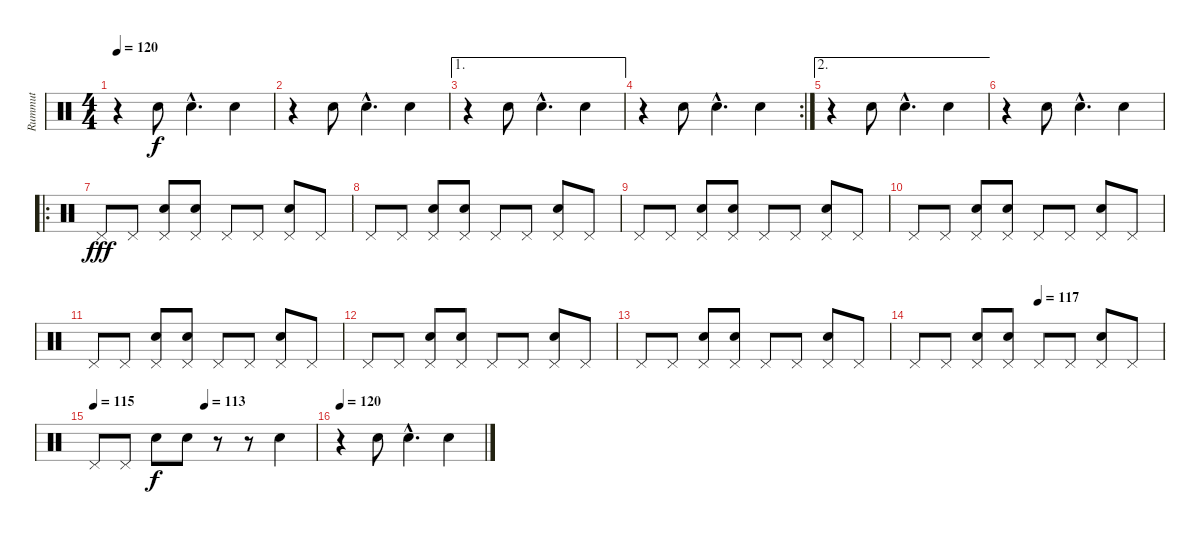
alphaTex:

\track ("Rummut" "Rummut") {instrument percussion}
\staff {score}
\articulation defaults
\ts (4 4)
\tempo 120
\clef neutral
\ks c
r.4{dy f} "Snare (hit) 2".8 "Snare (hit) 2"{hac}.4{d} "Snare (hit) 2".4 |
r.4 "Snare (hit) 2".8 "Snare (hit) 2"{hac}.4{d} "Snare (hit) 2".4 |
\ae 1
r.4 "Snare (hit) 2".8 "Snare (hit) 2"{hac}.4{d} "Snare (hit) 2".4 |
\rc 2
r.4 "Snare (hit) 2".8 "Snare (hit) 2"{hac}.4{d} "Snare (hit) 2".4 |
\ae 2
r.4 "Snare (hit) 2".8 "Snare (hit) 2"{hac}.4{d} "Snare (hit) 2".4 |
r.4 "Snare (hit) 2".8 "Snare (hit) 2"{hac}.4{d} "Snare (hit) 2".4 |
\ro "Pedal Hi-Hat (hit)".8{dy fff} "Pedal Hi-Hat (hit)".8
("Pedal Hi-Hat (hit)" "Snare (hit) 2").8 ("Pedal Hi-Hat (hit)" "Snare (hit) 2").8 "Pedal Hi-Hat (hit)".8 "Pedal Hi-Hat (hit)".8 ("Pedal Hi-Hat (hit)" "Snare (hit) 2").8 "Pedal Hi-Hat (hit)".8 |
"Pedal Hi-Hat (hit)".8 "Pedal Hi-Hat (hit)".8 ("Pedal Hi-Hat (hit)" "Snare (hit) 2").8 ("Pedal Hi-Hat (hit)" "Snare (hit) 2").8 "Pedal Hi-Hat (hit)".8 "Pedal Hi-Hat (hit)".8 ("Pedal Hi-Hat (hit)" "Snare (hit) 2").8 "Pedal Hi-Hat (hit)".8 |
"Pedal Hi-Hat (hit)".8 "Pedal Hi-Hat (hit)".8 ("Pedal Hi-Hat (hit)" "Snare (hit) 2").8 ("Pedal Hi-Hat (hit)" "Snare (hit) 2").8 "Pedal Hi-Hat (hit)".8 "Pedal Hi-Hat (hit)".8 ("Pedal Hi-Hat (hit)" "Snare (hit) 2").8 "Pedal Hi-Hat (hit)".8 |
"Pedal Hi-Hat (hit)".8 "Pedal Hi-Hat (hit)".8 ("Pedal Hi-Hat (hit)" "Snare (hit) 2").8 ("Pedal Hi-Hat (hit)" "Snare (hit) 2").8 "Pedal Hi-Hat (hit)".8 "Pedal Hi-Hat (hit)".8 ("Pedal Hi-Hat (hit)" "Snare (hit) 2").8 "Pedal Hi-Hat (hit)".8 |
"Pedal Hi-Hat (hit)".8 "Pedal Hi-Hat (hit)".8 ("Pedal Hi-Hat (hit)" "Snare (hit) 2").8 ("Pedal Hi-Hat (hit)" "Snare (hit) 2").8 "Pedal Hi-Hat (hit)".8 "Pedal Hi-Hat (hit)".8 ("Pedal Hi-Hat (hit)" "Snare (hit) 2").8 "Pedal Hi-Hat (hit)".8 |
"Pedal Hi-Hat (hit)".8 "Pedal Hi-Hat (hit)".8 ("Pedal Hi-Hat (hit)" "Snare (hit) 2").8 ("Pedal Hi-Hat (hit)" "Snare (hit) 2").8 "Pedal Hi-Hat (hit)".8 "Pedal Hi-Hat (hit)".8 ("Pedal Hi-Hat (hit)" "Snare (hit) 2").8 "Pedal Hi-Hat (hit)".8 |
"Pedal Hi-Hat (hit)".8 "Pedal Hi-Hat (hit)".8 ("Pedal Hi-Hat (hit)" "Snare (hit) 2").8 ("Pedal Hi-Hat (hit)" "Snare (hit) 2").8 "Pedal Hi-Hat (hit)".8 "Pedal Hi-Hat (hit)".8 ("Pedal Hi-Hat (hit)" "Snare (hit) 2").8 "Pedal Hi-Hat (hit)".8 |
\tempo (117 0.5)
"Pedal Hi-Hat (hit)".8 "Pedal Hi-Hat (hit)".8 ("Pedal Hi-Hat (hit)" "Snare (hit) 2").8 ("Pedal Hi-Hat (hit)" "Snare (hit) 2").8 "Pedal Hi-Hat (hit)".8 "Pedal Hi-Hat (hit)".8 ("Pedal Hi-Hat (hit)" "Snare (hit) 2").8 "Pedal Hi-Hat (hit)".8 |
\tempo 115
\tempo (113 0.5)
"Pedal Hi-Hat (hit)".8 "Pedal Hi-Hat (hit)".8 "Snare (hit) 2".8{dy f} "Snare (hit) 2".8 r.8 r.8 "Snare (hit) 2".4 |
\tempo 120
r.4 "Snare (hit) 2".8 "Snare (hit) 2"{hac}.4{d} "Snare (hit) 2".4
